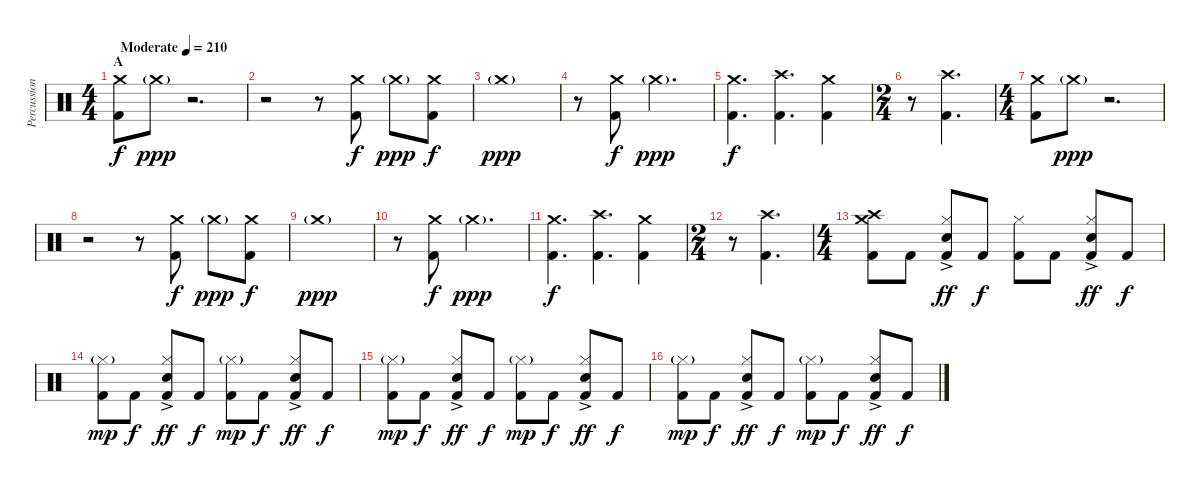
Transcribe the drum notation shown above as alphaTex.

\track ("Percussion" "Percussion") {instrument percussion}
\staff {score}
\articulation defaults
\ts (4 4)
\section ("" "A")
\tempo (210 "Moderate")
\clef neutral
\ks c
("Crash medium (hit)" "Kick (hit) 2").8{dy f} "Crash medium (hit)"{g}.8{dy ppp} r.2{d} |
r.2 r.8 ("Crash medium (hit)" "Kick (hit) 2").8{dy f} "Crash medium (hit)"{g}.8{dy ppp} ("Crash medium (hit)" "Kick (hit) 2").8{dy f} |
"Crash medium (hit)"{g}.1{dy ppp} |
r.8 ("Crash medium (hit)" "Kick (hit) 2").8{dy f} "Crash medium (hit)"{g}.2{d dy ppp} |
("Crash medium (hit)" "Kick (hit) 2").4{d dy f} ("Crash high (hit)" "Kick (hit) 2").4{d} ("Crash medium (hit)" "Kick (hit) 2").4 |
\ts (2 4)
r.8 ("Crash high (hit)" "Kick (hit) 2").4{d} |
\ts (4 4)
("Crash medium (hit)" "Kick (hit) 2").8 "Crash medium (hit)"{g}.8{dy ppp} r.2{d} |
r.2 r.8 ("Crash medium (hit)" "Kick (hit) 2").8{dy f} "Crash medium (hit)"{g}.8{dy ppp} ("Crash medium (hit)" "Kick (hit) 2").8{dy f} |
"Crash medium (hit)"{g}.1{dy ppp} |
r.8 ("Crash medium (hit)" "Kick (hit) 2").8{dy f} "Crash medium (hit)"{g}.2{d dy ppp} |
("Crash medium (hit)" "Kick (hit) 2").4{d dy f} ("Crash high (hit)" "Kick (hit) 2").4{d} ("Crash medium (hit)" "Kick (hit) 2").4 |
\ts (2 4)
r.8 ("Crash high (hit)" "Kick (hit) 2").4{d} |
\ts (4 4)
("Crash medium (hit)" "Crash high (hit)" "Kick (hit) 2").8 "Kick (hit) 2".8 ("Hi-Hat (closed)"{ac} "Electric Snare (hit)" "Kick (hit) 2").8{dy ff} "Kick (hit) 2".8{dy f} ("Hi-Hat (closed)" "Kick (hit) 2").8 "Kick (hit) 2".8 ("Hi-Hat (closed)"{ac} "Electric Snare (hit)" "Kick (hit) 2").8{dy ff} "Kick (hit) 2".8{dy f} |
("Hi-Hat (closed)"{g} "Kick (hit) 2").8{dy mp} "Kick (hit) 2".8{dy f} ("Hi-Hat (closed)"{ac} "Electric Snare (hit)" "Kick (hit) 2").8{dy ff} "Kick (hit) 2".8{dy f} ("Hi-Hat (closed)"{g} "Kick (hit) 2").8{dy mp} "Kick (hit) 2".8{dy f} ("Hi-Hat (closed)"{ac} "Electric Snare (hit)" "Kick (hit) 2").8{dy ff} "Kick (hit) 2".8{dy f} |
("Hi-Hat (closed)"{g} "Kick (hit) 2").8{dy mp} "Kick (hit) 2".8{dy f} ("Hi-Hat (closed)"{ac} "Electric Snare (hit)" "Kick (hit) 2").8{dy ff} "Kick (hit) 2".8{dy f} ("Hi-Hat (closed)"{g} "Kick (hit) 2").8{dy mp} "Kick (hit) 2".8{dy f} ("Hi-Hat (closed)"{ac} "Electric Snare (hit)" "Kick (hit) 2").8{dy ff} "Kick (hit) 2".8{dy f} |
("Hi-Hat (closed)"{g} "Kick (hit) 2").8{dy mp} "Kick (hit) 2".8{dy f} ("Hi-Hat (closed)"{ac} "Electric Snare (hit)" "Kick (hit) 2").8{dy ff} "Kick (hit) 2".8{dy f} ("Hi-Hat (closed)"{g} "Kick (hit) 2").8{dy mp} "Kick (hit) 2".8{dy f} ("Hi-Hat (closed)"{ac} "Electric Snare (hit)" "Kick (hit) 2").8{dy ff} "Kick (hit) 2".8{dy f}
